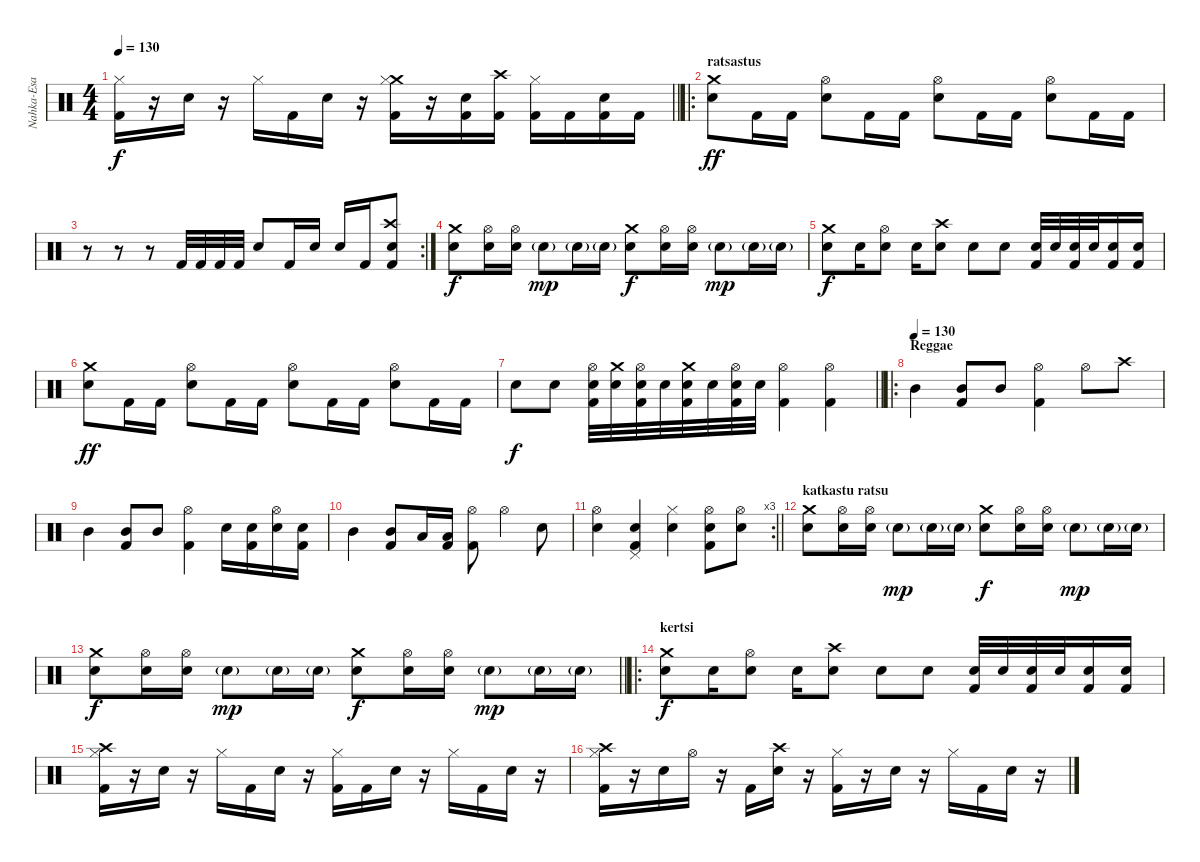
\track ("Nahka-Esa" "Nahka-Esa") {instrument percussion}
\staff {score}
\articulation defaults
\ts (4 4)
\tempo 130
\clef neutral
\barLineRight lightlight
\ks c
("Hi-Hat (closed)" "Kick (hit) 2").16{dy f} r.16 "Snare (hit) 2".16 r.16 "Hi-Hat (closed)".16 "Kick (hit) 2".16 "Snare (hit) 2".16 r.16 ("Crash medium (hit)" "Hi-Hat (closed)" "Kick (hit) 2").16 r.16 ("Snare (hit) 2" "Kick (hit) 2").16 ("Crash high (hit)" "Kick (hit) 2").16 ("Hi-Hat (closed)" "Kick (hit) 2").16 "Kick (hit) 2".16 ("Snare (hit) 2" "Kick (hit) 2").16 "Kick (hit) 2".16 |
\ro
\section ("" "ratsastus")
("Crash medium (hit)" "Electric Snare (hit)").8{dy ff} "Kick (hit) 2".16 "Kick (hit) 2".16 ("Hi-Hat (open)" "Electric Snare (hit)").8 "Kick (hit) 2".16 "Kick (hit) 2".16 ("Hi-Hat (open)" "Electric Snare (hit)").8 "Kick (hit) 2".16 "Kick (hit) 2".16 ("Hi-Hat (open)" "Electric Snare (hit)").8 "Kick (hit) 2".16 "Kick (hit) 2".16 |
\rc 2
r.8 r.8 r.8 "Kick (hit) 2".32 "Kick (hit) 2".32 "Kick (hit) 2".32 "Kick (hit) 2".32 "Electric Snare (hit)".8 "Kick (hit) 2".16 "Electric Snare (hit)".16 "Electric Snare (hit)".16 "Kick (hit) 2".16 ("Crash high (hit)" "Electric Snare (hit)" "Kick (hit) 2").8 |
("Crash medium (hit)" "Electric Snare (hit)").8{dy f} ("Hi-Hat (open)" "Electric Snare (hit)").16 ("Hi-Hat (open)" "Electric Snare (hit)").16 "Snare (hit)"{g}.8{dy mp} "Snare (hit)"{g}.16 "Snare (hit)"{g}.16 ("Crash medium (hit)" "Electric Snare (hit)").8{dy f} ("Hi-Hat (open)" "Electric Snare (hit)").16 ("Hi-Hat (open)" "Electric Snare (hit)").16 "Snare (hit)"{g}.8{dy mp} "Snare (hit)"{g}.16 "Snare (hit)"{g}.16 |
("Crash medium (hit)" "Electric Snare (hit)").8{dy f} "Snare (hit)".16 ("Hi-Hat (open)" "Electric Snare (hit)").8 "Snare (hit)".16 ("Crash high (hit)" "Electric Snare (hit)").8 "Snare (hit)".8 "Electric Snare (hit)".8 ("Electric Snare (hit)" "Kick (hit) 2").32 "Electric Snare (hit)".32 ("Electric Snare (hit)" "Kick (hit) 2").32 "Electric Snare (hit)".32 ("Electric Snare (hit)" "Kick (hit) 2").16 ("Electric Snare (hit)" "Kick (hit) 2").16 |
("Crash medium (hit)" "Electric Snare (hit)").8{dy ff} "Kick (hit) 2".16 "Kick (hit) 2".16 ("Hi-Hat (open)" "Electric Snare (hit)").8 "Kick (hit) 2".16 "Kick (hit) 2".16 ("Hi-Hat (open)" "Electric Snare (hit)").8 "Kick (hit) 2".16 "Kick (hit) 2".16 ("Hi-Hat (open)" "Electric Snare (hit)").8 "Kick (hit) 2".16 "Kick (hit) 2".16 |
\barLineRight lightlight "Electric Snare (hit)".8{dy f} "Electric Snare (hit)".8
("Hi-Hat (open)" "Electric Snare (hit)" "Kick (hit) 2").32 ("Crash medium (hit)" "Electric Snare (hit)").32 ("Hi-Hat (open)" "Electric Snare (hit)" "Kick (hit) 2").32 "Electric Snare (hit)".32 ("Crash medium (hit)" "Electric Snare (hit)" "Kick (hit) 2").32 "Electric Snare (hit)".32 ("Hi-Hat (open)" "Electric Snare (hit)" "Kick (hit) 2").32 "Electric Snare (hit)".32 ("Hi-Hat (open)" "Kick (hit) 2").4 ("Hi-Hat (open)" "Kick (hit) 2").4 |
\ro
\section ("" "Reggae")
\tempo (130)
"Mid Tom (hit)".4 ("Mid Tom (hit)" "Kick (hit) 2").8 "Mid Tom (hit)".8 ("Hi-Hat (open)" "Kick (hit) 2").4 "Hi-Hat (open)".8 "Crash high (hit)".8 |
"Mid Tom (hit)".4 ("Mid Tom (hit)" "Kick (hit) 2").8 "Mid Tom (hit)".8 ("Hi-Hat (open)" "Kick (hit) 2").4 "Electric Snare (hit)".16 ("Electric Snare (hit)" "Kick (hit) 2").16 ("Hi-Hat (open)" "Electric Snare (hit)").16 ("Electric Snare (hit)" "Kick (hit) 2").16 |
"Mid Tom (hit)".4 ("Mid Tom (hit)" "Kick (hit) 2").8 "Low Tom (hit)".16 ("Low Tom (hit)" "Kick (hit) 2").16 ("Hi-Hat (open)" "Kick (hit) 2").8 "Hi-Hat (open)".4 "Electric Snare (hit)".8 |
\rc 3
\barLineRight lightlight
("Hi-Hat (open)" "Electric Snare (hit)").4 ("Pedal Hi-Hat (hit)" "Electric Snare (hit)" "Kick (hit) 2").4 ("Hi-Hat (closed)" "Electric Snare (hit)").4 ("Hi-Hat (open)" "Electric Snare (hit)" "Kick (hit) 2").8 ("Hi-Hat (open)" "Electric Snare (hit)").8 |
\section ("" "katkastu ratsu")
("Crash medium (hit)" "Electric Snare (hit)").8 ("Hi-Hat (open)" "Electric Snare (hit)").16 ("Hi-Hat (open)" "Electric Snare (hit)").16 "Snare (hit)"{g}.8{dy mp} "Snare (hit)"{g}.16 "Snare (hit)"{g}.16 ("Crash medium (hit)" "Electric Snare (hit)").8{dy f} ("Hi-Hat (open)" "Electric Snare (hit)").16 ("Hi-Hat (open)" "Electric Snare (hit)").16 "Snare (hit)"{g}.8{dy mp} "Snare (hit)"{g}.16 "Snare (hit)"{g}.16 |
\barLineRight lightlight
("Crash medium (hit)" "Electric Snare (hit)").8{dy f} ("Hi-Hat (open)" "Electric Snare (hit)").16 ("Hi-Hat (open)" "Electric Snare (hit)").16 "Snare (hit)"{g}.8{dy mp} "Snare (hit)"{g}.16 "Snare (hit)"{g}.16 ("Crash medium (hit)" "Electric Snare (hit)").8{dy f} ("Hi-Hat (open)" "Electric Snare (hit)").16 ("Hi-Hat (open)" "Electric Snare (hit)").16 "Snare (hit)"{g}.8{dy mp} "Snare (hit)"{g}.16 "Snare (hit)"{g}.16 |
\ro
\section ("" "kertsi")
("Crash medium (hit)" "Electric Snare (hit)").8{dy f} "Snare (hit)".16 ("Hi-Hat (open)" "Electric Snare (hit)").8 "Snare (hit)".16 ("Crash high (hit)" "Electric Snare (hit)").8 "Snare (hit)".8 "Electric Snare (hit)".8 ("Electric Snare (hit)" "Kick (hit) 2").32 "Electric Snare (hit)".32 ("Electric Snare (hit)" "Kick (hit) 2").32 "Electric Snare (hit)".32 ("Electric Snare (hit)" "Kick (hit) 2").16 ("Electric Snare (hit)" "Kick (hit) 2").16 |
("Crash high (hit)" "Hi-Hat (closed)" "Kick (hit) 2").16 r.16 "Snare (hit) 2".16 r.16 "Hi-Hat (closed)".16 "Kick (hit) 2".16 "Snare (hit) 2".16 r.16 ("Hi-Hat (closed)" "Kick (hit) 2").16 "Kick (hit) 2".16 "Snare (hit) 2".16 r.16 "Hi-Hat (closed)".16 "Kick (hit) 2".16 "Snare (hit) 2".16 r.16 |
("Crash high (hit)" "Hi-Hat (closed)" "Kick (hit) 2").16 r.16 "Snare (hit) 2".16 "Hi-Hat (open)".16 r.16 "Kick (hit) 2".16 ("Crash high (hit)" "Snare (hit) 2").16 r.16 ("Hi-Hat (closed)" "Kick (hit) 2").16 r.16 "Snare (hit) 2".16 r.16 "Hi-Hat (closed)".16 "Kick (hit) 2".16 "Snare (hit) 2".16 r.16
